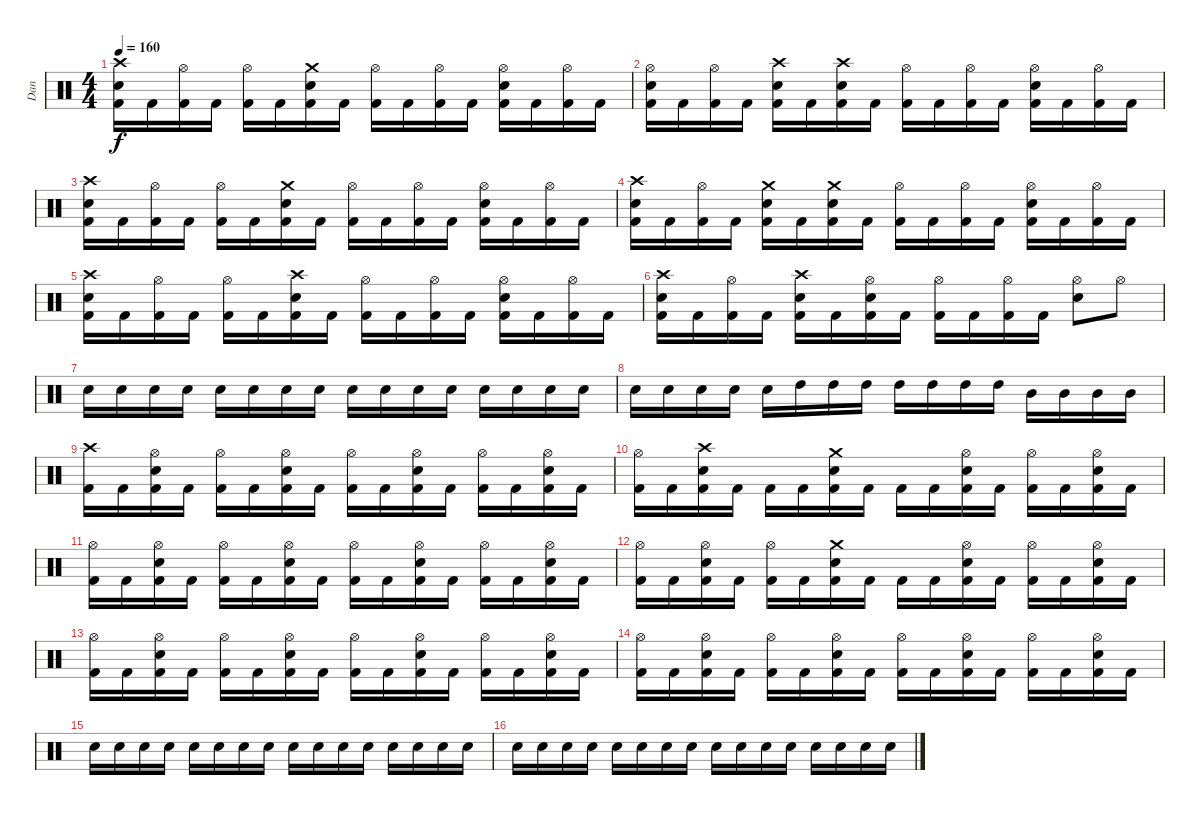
\track ("Dan " "Dan ") {instrument percussion}
\staff {score}
\articulation defaults
\ts (4 4)
\tempo 160
\clef neutral
\ks c
("Metronome (bell)" "Kick (hit) 2" "Crash high (hit)").16{dy f} "Kick (hit) 2".16 ("Kick (hit) 2" "Hi-Hat (open)").16 "Kick (hit) 2".16 ("Kick (hit) 2" "Hi-Hat (open)").16 "Kick (hit) 2".16 ("Metronome (bell)" "Kick (hit) 2" "Crash medium (hit)").16 "Kick (hit) 2".16 ("Kick (hit) 2" "Hi-Hat (open)").16 "Kick (hit) 2".16 ("Kick (hit) 2" "Hi-Hat (open)").16 "Kick (hit) 2".16 ("Metronome (bell)" "Kick (hit) 2" "Hi-Hat (open)").16 "Kick (hit) 2".16 ("Kick (hit) 2" "Hi-Hat (open)").16 "Kick (hit) 2".16 |
("Metronome (bell)" "Kick (hit) 2" "Hi-Hat (open)").16 "Kick (hit) 2".16 ("Kick (hit) 2" "Hi-Hat (open)").16 "Kick (hit) 2".16 ("Metronome (bell)" "Kick (hit) 2" "Crash high (hit)").16 "Kick (hit) 2".16 ("Metronome (bell)" "Kick (hit) 2" "Crash high (hit)").16 "Kick (hit) 2".16 ("Kick (hit) 2" "Hi-Hat (open)").16 "Kick (hit) 2".16 ("Kick (hit) 2" "Hi-Hat (open)").16 "Kick (hit) 2".16 ("Metronome (bell)" "Kick (hit) 2" "Hi-Hat (open)").16 "Kick (hit) 2".16 ("Kick (hit) 2" "Hi-Hat (open)").16 "Kick (hit) 2".16 |
("Metronome (bell)" "Kick (hit) 2" "Crash high (hit)").16 "Kick (hit) 2".16 ("Kick (hit) 2" "Hi-Hat (open)").16 "Kick (hit) 2".16 ("Kick (hit) 2" "Hi-Hat (open)").16 "Kick (hit) 2".16 ("Metronome (bell)" "Kick (hit) 2" "Crash medium (hit)").16 "Kick (hit) 2".16 ("Kick (hit) 2" "Hi-Hat (open)").16 "Kick (hit) 2".16 ("Kick (hit) 2" "Hi-Hat (open)").16 "Kick (hit) 2".16 ("Metronome (bell)" "Kick (hit) 2" "Hi-Hat (open)").16 "Kick (hit) 2".16 ("Kick (hit) 2" "Hi-Hat (open)").16 "Kick (hit) 2".16 |
("Metronome (bell)" "Kick (hit) 2" "Crash high (hit)").16 "Kick (hit) 2".16 ("Kick (hit) 2" "Hi-Hat (open)").16 "Kick (hit) 2".16 ("Metronome (bell)" "Kick (hit) 2" "Crash medium (hit)").16 "Kick (hit) 2".16 ("Metronome (bell)" "Kick (hit) 2" "Crash medium (hit)").16 "Kick (hit) 2".16 ("Kick (hit) 2" "Hi-Hat (open)").16 "Kick (hit) 2".16 ("Kick (hit) 2" "Hi-Hat (open)").16 "Kick (hit) 2".16 ("Metronome (bell)" "Kick (hit) 2" "Hi-Hat (open)").16 "Kick (hit) 2".16 ("Kick (hit) 2" "Hi-Hat (open)").16 "Kick (hit) 2".16 |
("Metronome (bell)" "Kick (hit) 2" "Crash high (hit)").16 "Kick (hit) 2".16 ("Kick (hit) 2" "Hi-Hat (open)").16 "Kick (hit) 2".16 ("Kick (hit) 2" "Hi-Hat (open)").16 "Kick (hit) 2".16 ("Metronome (bell)" "Kick (hit) 2" "Crash high (hit)").16 "Kick (hit) 2".16 ("Kick (hit) 2" "Hi-Hat (open)").16 "Kick (hit) 2".16 ("Kick (hit) 2" "Hi-Hat (open)").16 "Kick (hit) 2".16 ("Metronome (bell)" "Kick (hit) 2" "Hi-Hat (open)").16 "Kick (hit) 2".16 ("Kick (hit) 2" "Hi-Hat (open)").16 "Kick (hit) 2".16 |
("Metronome (bell)" "Kick (hit) 2" "Crash high (hit)").16 "Kick (hit) 2".16 ("Kick (hit) 2" "Hi-Hat (open)").16 "Kick (hit) 2".16 ("Metronome (bell)" "Kick (hit) 2" "Crash high (hit)").16 "Kick (hit) 2".16 ("Metronome (bell)" "Kick (hit) 2" "Hi-Hat (open)").16 "Kick (hit) 2".16 ("Kick (hit) 2" "Hi-Hat (open)").16 "Kick (hit) 2".16 ("Kick (hit) 2" "Hi-Hat (open)").16 "Kick (hit) 2".16 ("Metronome (bell)" "Hi-Hat (open)").8 "Hi-Hat (open)".8 |
"Metronome (bell)".16 "Metronome (bell)".16 "Metronome (bell)".16 "Metronome (bell)".16 "Metronome (bell)".16 "Metronome (bell)".16 "Metronome (bell)".16 "Metronome (bell)".16 "Metronome (bell)".16 "Metronome (bell)".16 "Metronome (bell)".16 "Metronome (bell)".16 "Metronome (bell)".16 "Metronome (bell)".16 "Metronome (bell)".16 "Metronome (bell)".16 |
"Metronome (bell)".16 "Metronome (bell)".16 "Metronome (bell)".16 "Metronome (bell)".16 "Metronome (bell)".16 "High Tom (hit)".16 "High Tom (hit)".16 "High Tom (hit)".16 "High Tom (hit)".16 "High Tom (hit)".16 "High Tom (hit)".16 "High Tom (hit)".16 "Mid Tom (hit)".16 "Mid Tom (hit)".16 "Mid Tom (hit)".16 "Mid Tom (hit)".16 |
("Kick (hit) 2" "Crash high (hit)").16 "Kick (hit) 2".16 ("Metronome (bell)" "Kick (hit) 2" "Hi-Hat (open)").16 "Kick (hit) 2".16 ("Kick (hit) 2" "Hi-Hat (open)").16 "Kick (hit) 2".16 ("Metronome (bell)" "Kick (hit) 2" "Hi-Hat (open)").16 "Kick (hit) 2".16 ("Kick (hit) 2" "Hi-Hat (open)").16 "Kick (hit) 2".16 ("Metronome (bell)" "Kick (hit) 2" "Hi-Hat (open)").16 "Kick (hit) 2".16 ("Kick (hit) 2" "Hi-Hat (open)").16 "Kick (hit) 2".16 ("Metronome (bell)" "Kick (hit) 2" "Hi-Hat (open)").16 "Kick (hit) 2".16 |
("Kick (hit) 2" "Hi-Hat (open)").16 "Kick (hit) 2".16 ("Metronome (bell)" "Kick (hit) 2" "Crash high (hit)").16 "Kick (hit) 2".16 "Kick (hit) 2".16 "Kick (hit) 2".16 ("Metronome (bell)" "Kick (hit) 2" "Crash medium (hit)").16 "Kick (hit) 2".16 "Kick (hit) 2".16 "Kick (hit) 2".16 ("Metronome (bell)" "Kick (hit) 2" "Hi-Hat (open)").16 "Kick (hit) 2".16 ("Kick (hit) 2" "Hi-Hat (open)").16 "Kick (hit) 2".16 ("Metronome (bell)" "Kick (hit) 2" "Hi-Hat (open)").16 "Kick (hit) 2".16 |
("Kick (hit) 2" "Hi-Hat (open)").16 "Kick (hit) 2".16 ("Metronome (bell)" "Kick (hit) 2" "Hi-Hat (open)").16 "Kick (hit) 2".16 ("Kick (hit) 2" "Hi-Hat (open)").16 "Kick (hit) 2".16 ("Metronome (bell)" "Kick (hit) 2" "Hi-Hat (open)").16 "Kick (hit) 2".16 ("Kick (hit) 2" "Hi-Hat (open)").16 "Kick (hit) 2".16 ("Metronome (bell)" "Kick (hit) 2" "Hi-Hat (open)").16 "Kick (hit) 2".16 ("Kick (hit) 2" "Hi-Hat (open)").16 "Kick (hit) 2".16 ("Metronome (bell)" "Kick (hit) 2" "Hi-Hat (open)").16 "Kick (hit) 2".16 |
("Kick (hit) 2" "Hi-Hat (open)").16 "Kick (hit) 2".16 ("Metronome (bell)" "Kick (hit) 2" "Hi-Hat (open)").16 "Kick (hit) 2".16 ("Kick (hit) 2" "Hi-Hat (open)").16 "Kick (hit) 2".16 ("Metronome (bell)" "Kick (hit) 2" "Crash medium (hit)").16 "Kick (hit) 2".16 "Kick (hit) 2".16 "Kick (hit) 2".16 ("Metronome (bell)" "Kick (hit) 2" "Hi-Hat (open)").16 "Kick (hit) 2".16 ("Kick (hit) 2" "Hi-Hat (open)").16 "Kick (hit) 2".16 ("Metronome (bell)" "Kick (hit) 2" "Hi-Hat (open)").16 "Kick (hit) 2".16 |
("Kick (hit) 2" "Hi-Hat (open)").16 "Kick (hit) 2".16 ("Metronome (bell)" "Kick (hit) 2" "Hi-Hat (open)").16 "Kick (hit) 2".16 ("Kick (hit) 2" "Hi-Hat (open)").16 "Kick (hit) 2".16 ("Metronome (bell)" "Kick (hit) 2" "Hi-Hat (open)").16 "Kick (hit) 2".16 ("Kick (hit) 2" "Hi-Hat (open)").16 "Kick (hit) 2".16 ("Metronome (bell)" "Kick (hit) 2" "Hi-Hat (open)").16 "Kick (hit) 2".16 ("Kick (hit) 2" "Hi-Hat (open)").16 "Kick (hit) 2".16 ("Metronome (bell)" "Kick (hit) 2" "Hi-Hat (open)").16 "Kick (hit) 2".16 |
("Kick (hit) 2" "Hi-Hat (open)").16 "Kick (hit) 2".16 ("Metronome (bell)" "Kick (hit) 2" "Hi-Hat (open)").16 "Kick (hit) 2".16 ("Kick (hit) 2" "Hi-Hat (open)").16 "Kick (hit) 2".16 ("Metronome (bell)" "Kick (hit) 2" "Hi-Hat (open)").16 "Kick (hit) 2".16 ("Kick (hit) 2" "Hi-Hat (open)").16 "Kick (hit) 2".16 ("Metronome (bell)" "Kick (hit) 2" "Hi-Hat (open)").16 "Kick (hit) 2".16 ("Kick (hit) 2" "Hi-Hat (open)").16 "Kick (hit) 2".16 ("Metronome (bell)" "Kick (hit) 2" "Hi-Hat (open)").16 "Kick (hit) 2".16 |
"Metronome (bell)".16 "Metronome (bell)".16 "Metronome (bell)".16 "Metronome (bell)".16 "Metronome (bell)".16 "Metronome (bell)".16 "Metronome (bell)".16 "Metronome (bell)".16 "Metronome (bell)".16 "Metronome (bell)".16 "Metronome (bell)".16 "Metronome (bell)".16 "Metronome (bell)".16 "Metronome (bell)".16 "Metronome (bell)".16 "Metronome (bell)".16 |
"Metronome (bell)".16 "Metronome (bell)".16 "Metronome (bell)".16 "Metronome (bell)".16 "Metronome (bell)".16 "Metronome (bell)".16 "Metronome (bell)".16 "Metronome (bell)".16 "Metronome (bell)".16 "Metronome (bell)".16 "Metronome (bell)".16 "Metronome (bell)".16 "Metronome (bell)".16 "Metronome (bell)".16 "Metronome (bell)".16 "Metronome (bell)".16
